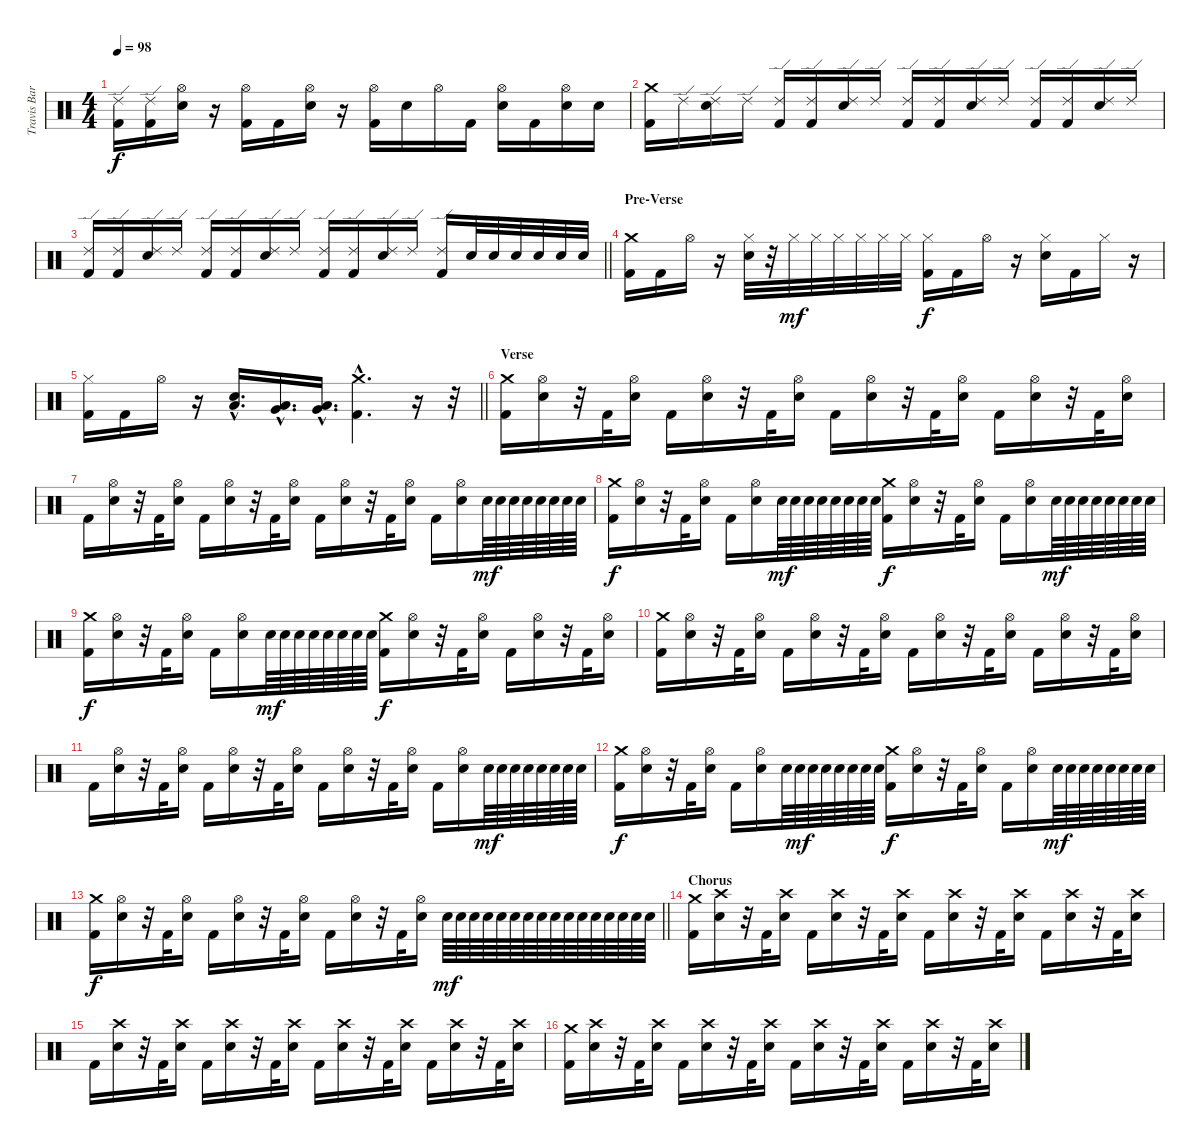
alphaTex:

\track ("Travis Barker" "Travis Bar") {instrument percussion}
\staff {score}
\articulation defaults
\ts (4 4)
\tempo 98
\clef neutral
\ks c
("Ride (edge) 2" "Kick (hit) 2").16{dy f} ("Ride (edge) 2" "Kick (hit) 2").16 ("Hi-Hat (open)" "Electric Snare (hit)").16 r.16 ("Hi-Hat (open)" "Kick (hit) 2").16 "Kick (hit) 2".16 ("Hi-Hat (open)" "Electric Snare (hit)").16 r.16 ("Hi-Hat (open)" "Kick (hit) 2").16 "Electric Snare (hit)".16 "Hi-Hat (open)".16 "Kick (hit) 2".16 ("Hi-Hat (open)" "Electric Snare (hit)").16 "Kick (hit) 2".16 ("Hi-Hat (open)" "Electric Snare (hit)").16 "Electric Snare (hit)".16 |
("Crash medium (hit)" "Kick (hit) 2").16 "Ride (edge) 2".16 ("Ride (edge) 2" "Electric Snare (hit)").16 "Ride (edge) 2".16 ("Ride (edge) 2" "Kick (hit) 2").16 ("Ride (edge) 2" "Kick (hit) 2").16 ("Ride (edge) 2" "Electric Snare (hit)").16 "Ride (edge) 2".16 ("Ride (edge) 2" "Kick (hit) 2").16 ("Ride (edge) 2" "Kick (hit) 2").16 ("Ride (edge) 2" "Electric Snare (hit)").16 "Ride (edge) 2".16 ("Ride (edge) 2" "Kick (hit) 2").16 ("Ride (edge) 2" "Kick (hit) 2").16 ("Ride (edge) 2" "Electric Snare (hit)").16 "Ride (edge) 2".16 |
\barLineRight lightlight
("Ride (edge) 2" "Kick (hit) 2").16 ("Ride (edge) 2" "Kick (hit) 2").16 ("Ride (edge) 2" "Electric Snare (hit)").16 "Ride (edge) 2".16 ("Ride (edge) 2" "Kick (hit) 2").16 ("Ride (edge) 2" "Kick (hit) 2").16 ("Ride (edge) 2" "Electric Snare (hit)").16 "Ride (edge) 2".16 ("Ride (edge) 2" "Kick (hit) 2").16 ("Ride (edge) 2" "Kick (hit) 2").16 ("Ride (edge) 2" "Electric Snare (hit)").16 "Ride (edge) 2".16 ("Ride (edge) 2" "Kick (hit) 2").16 "Electric Snare (hit)".32 "Electric Snare (hit)".32 "Electric Snare (hit)".32 "Electric Snare (hit)".32 "Electric Snare (hit)".32 "Electric Snare (hit)".32 |
\section ("" "Pre-Verse")
("Crash medium (hit)" "Kick (hit) 2").16 "Kick (hit) 2".16 "Hi-Hat (open)".16 r.16 ("Hi-Hat (closed)" "Electric Snare (hit)").32 r.32 "Hi-Hat (closed)".32{dy mf} "Hi-Hat (closed)".32 "Hi-Hat (closed)".32 "Hi-Hat (closed)".32 "Hi-Hat (closed)".32 "Hi-Hat (closed)".32 ("Hi-Hat (closed)" "Kick (hit) 2").16{dy f} "Kick (hit) 2".16 "Hi-Hat (open)".16 r.16 ("Hi-Hat (closed)" "Electric Snare (hit)").16 "Kick (hit) 2".16 "Hi-Hat (closed)".16 r.16 |
\barLineRight lightlight
("Hi-Hat (closed)" "Kick (hit) 2").16 "Kick (hit) 2".16 "Hi-Hat (open)".16 r.16 ("Electric Snare (hit)"{hac} "Low Tom (hit)"{hac}).16{d} ("Low Tom (hit)"{hac} "Very Low Tom (hit)"{hac}).16{d} ("Very Low Tom (hit)"{hac} "Low Floor Tom (hit)"{hac}).16{d} ("Crash medium (hit)"{hac} "Kick (hit) 2"{hac}).4{d} r.16 r.32 |
\section ("" "Verse")
("Crash medium (hit)" "Kick (hit) 2").16 ("Hi-Hat (open)" "Electric Snare (hit)").16 r.32 "Kick (hit) 2".32 ("Hi-Hat (open)" "Electric Snare (hit)").16 "Kick (hit) 2".16 ("Hi-Hat (open)" "Electric Snare (hit)").16 r.32 "Kick (hit) 2".32 ("Hi-Hat (open)" "Electric Snare (hit)").16 "Kick (hit) 2".16 ("Hi-Hat (open)" "Electric Snare (hit)").16 r.32 "Kick (hit) 2".32 ("Hi-Hat (open)" "Electric Snare (hit)").16 "Kick (hit) 2".16 ("Hi-Hat (open)" "Electric Snare (hit)").16 r.32 "Kick (hit) 2".32 ("Hi-Hat (open)" "Electric Snare (hit)").16 |
"Kick (hit) 2".16 ("Hi-Hat (open)" "Electric Snare (hit)").16 r.32 "Kick (hit) 2".32 ("Hi-Hat (open)" "Electric Snare (hit)").16 "Kick (hit) 2".16 ("Hi-Hat (open)" "Electric Snare (hit)").16 r.32 "Kick (hit) 2".32 ("Hi-Hat (open)" "Electric Snare (hit)").16 "Kick (hit) 2".16 ("Hi-Hat (open)" "Electric Snare (hit)").16 r.32 "Kick (hit) 2".32 ("Hi-Hat (open)" "Electric Snare (hit)").16 "Kick (hit) 2".16 ("Hi-Hat (open)" "Electric Snare (hit)").16 "Electric Snare (hit)".64{dy mf} "Electric Snare (hit)".64 "Electric Snare (hit)".64 "Electric Snare (hit)".64 "Electric Snare (hit)".64 "Electric Snare (hit)".64 "Electric Snare (hit)".64 "Electric Snare (hit)".64 |
("Crash medium (hit)" "Kick (hit) 2").16{dy f} ("Hi-Hat (open)" "Electric Snare (hit)").16 r.32 "Kick (hit) 2".32 ("Hi-Hat (open)" "Electric Snare (hit)").16 "Kick (hit) 2".16 ("Hi-Hat (open)" "Electric Snare (hit)").16 "Electric Snare (hit)".64{dy mf} "Electric Snare (hit)".64 "Electric Snare (hit)".64 "Electric Snare (hit)".64 "Electric Snare (hit)".64 "Electric Snare (hit)".64 "Electric Snare (hit)".64 "Electric Snare (hit)".64 ("Crash medium (hit)" "Kick (hit) 2").16{dy f} ("Hi-Hat (open)" "Electric Snare (hit)").16 r.32 "Kick (hit) 2".32 ("Hi-Hat (open)" "Electric Snare (hit)").16 "Kick (hit) 2".16 ("Hi-Hat (open)" "Electric Snare (hit)").16 "Electric Snare (hit)".64{dy mf} "Electric Snare (hit)".64 "Electric Snare (hit)".64 "Electric Snare (hit)".64 "Electric Snare (hit)".64 "Electric Snare (hit)".64 "Electric Snare (hit)".64 "Electric Snare (hit)".64 |
("Crash medium (hit)" "Kick (hit) 2").16{dy f} ("Hi-Hat (open)" "Electric Snare (hit)").16 r.32 "Kick (hit) 2".32 ("Hi-Hat (open)" "Electric Snare (hit)").16 "Kick (hit) 2".16 ("Hi-Hat (open)" "Electric Snare (hit)").16 "Electric Snare (hit)".64{dy mf} "Electric Snare (hit)".64 "Electric Snare (hit)".64 "Electric Snare (hit)".64 "Electric Snare (hit)".64 "Electric Snare (hit)".64 "Electric Snare (hit)".64 "Electric Snare (hit)".64 ("Crash medium (hit)" "Kick (hit) 2").16{dy f} ("Hi-Hat (open)" "Electric Snare (hit)").16 r.32 "Kick (hit) 2".32 ("Hi-Hat (open)" "Electric Snare (hit)").16 "Kick (hit) 2".16 ("Hi-Hat (open)" "Electric Snare (hit)").16 r.32 "Kick (hit) 2".32 ("Hi-Hat (open)" "Electric Snare (hit)").16 |
("Crash medium (hit)" "Kick (hit) 2").16 ("Hi-Hat (open)" "Electric Snare (hit)").16 r.32 "Kick (hit) 2".32 ("Hi-Hat (open)" "Electric Snare (hit)").16 "Kick (hit) 2".16 ("Hi-Hat (open)" "Electric Snare (hit)").16 r.32 "Kick (hit) 2".32 ("Hi-Hat (open)" "Electric Snare (hit)").16 "Kick (hit) 2".16 ("Hi-Hat (open)" "Electric Snare (hit)").16 r.32 "Kick (hit) 2".32 ("Hi-Hat (open)" "Electric Snare (hit)").16 "Kick (hit) 2".16 ("Hi-Hat (open)" "Electric Snare (hit)").16 r.32 "Kick (hit) 2".32 ("Hi-Hat (open)" "Electric Snare (hit)").16 |
"Kick (hit) 2".16 ("Hi-Hat (open)" "Electric Snare (hit)").16 r.32 "Kick (hit) 2".32 ("Hi-Hat (open)" "Electric Snare (hit)").16 "Kick (hit) 2".16 ("Hi-Hat (open)" "Electric Snare (hit)").16 r.32 "Kick (hit) 2".32 ("Hi-Hat (open)" "Electric Snare (hit)").16 "Kick (hit) 2".16 ("Hi-Hat (open)" "Electric Snare (hit)").16 r.32 "Kick (hit) 2".32 ("Hi-Hat (open)" "Electric Snare (hit)").16 "Kick (hit) 2".16 ("Hi-Hat (open)" "Electric Snare (hit)").16 "Electric Snare (hit)".64{dy mf} "Electric Snare (hit)".64 "Electric Snare (hit)".64 "Electric Snare (hit)".64 "Electric Snare (hit)".64 "Electric Snare (hit)".64 "Electric Snare (hit)".64 "Electric Snare (hit)".64 |
("Crash medium (hit)" "Kick (hit) 2").16{dy f} ("Hi-Hat (open)" "Electric Snare (hit)").16 r.32 "Kick (hit) 2".32 ("Hi-Hat (open)" "Electric Snare (hit)").16 "Kick (hit) 2".16 ("Hi-Hat (open)" "Electric Snare (hit)").16 "Electric Snare (hit)".64 "Electric Snare (hit)".64{dy mf} "Electric Snare (hit)".64 "Electric Snare (hit)".64 "Electric Snare (hit)".64 "Electric Snare (hit)".64 "Electric Snare (hit)".64 "Electric Snare (hit)".64 ("Crash medium (hit)" "Kick (hit) 2").16{dy f} ("Hi-Hat (open)" "Electric Snare (hit)").16 r.32 "Kick (hit) 2".32 ("Hi-Hat (open)" "Electric Snare (hit)").16 "Kick (hit) 2".16 ("Hi-Hat (open)" "Electric Snare (hit)").16 "Electric Snare (hit)".64{dy mf} "Electric Snare (hit)".64 "Electric Snare (hit)".64 "Electric Snare (hit)".64 "Electric Snare (hit)".64 "Electric Snare (hit)".64 "Electric Snare (hit)".64 "Electric Snare (hit)".64 |
\barLineRight lightlight
("Crash medium (hit)" "Kick (hit) 2").16{dy f} ("Hi-Hat (open)" "Electric Snare (hit)").16 r.32 "Kick (hit) 2".32 ("Hi-Hat (open)" "Electric Snare (hit)").16 "Kick (hit) 2".16 ("Hi-Hat (open)" "Electric Snare (hit)").16 r.32 "Kick (hit) 2".32 ("Hi-Hat (open)" "Electric Snare (hit)").16 "Kick (hit) 2".16 ("Hi-Hat (open)" "Electric Snare (hit)").16 r.32 "Kick (hit) 2".32 ("Hi-Hat (open)" "Electric Snare (hit)").16 "Electric Snare (hit)".64{dy mf} "Electric Snare (hit)".64 "Electric Snare (hit)".64 "Electric Snare (hit)".64 "Electric Snare (hit)".64 "Electric Snare (hit)".64 "Electric Snare (hit)".64 "Electric Snare (hit)".64 "Electric Snare (hit)".64 "Electric Snare (hit)".64 "Electric Snare (hit)".64 "Electric Snare (hit)".64 "Electric Snare (hit)".64 "Electric Snare (hit)".64 "Electric Snare (hit)".64 "Electric Snare (hit)".64 |
\section ("" "Chorus")
("Crash medium (hit)" "Kick (hit) 2").16 ("Crash high (hit)" "Electric Snare (hit)").16 r.32 "Kick (hit) 2".32 ("Crash high (hit)" "Electric Snare (hit)").16 "Kick (hit) 2".16 ("Crash high (hit)" "Electric Snare (hit)").16 r.32 "Kick (hit) 2".32 ("Crash high (hit)" "Electric Snare (hit)").16 "Kick (hit) 2".16 ("Crash high (hit)" "Electric Snare (hit)").16 r.32 "Kick (hit) 2".32 ("Crash high (hit)" "Electric Snare (hit)").16 "Kick (hit) 2".16 ("Crash high (hit)" "Electric Snare (hit)").16 r.32 "Kick (hit) 2".32 ("Crash high (hit)" "Electric Snare (hit)").16 |
"Kick (hit) 2".16 ("Crash high (hit)" "Electric Snare (hit)").16 r.32 "Kick (hit) 2".32 ("Crash high (hit)" "Electric Snare (hit)").16 "Kick (hit) 2".16 ("Crash high (hit)" "Electric Snare (hit)").16 r.32 "Kick (hit) 2".32 ("Crash high (hit)" "Electric Snare (hit)").16 "Kick (hit) 2".16 ("Crash high (hit)" "Electric Snare (hit)").16 r.32 "Kick (hit) 2".32 ("Crash high (hit)" "Electric Snare (hit)").16 "Kick (hit) 2".16 ("Crash high (hit)" "Electric Snare (hit)").16 r.32 "Kick (hit) 2".32 ("Crash high (hit)" "Electric Snare (hit)").16 |
("Crash medium (hit)" "Kick (hit) 2").16 ("Crash high (hit)" "Electric Snare (hit)").16 r.32 "Kick (hit) 2".32 ("Crash high (hit)" "Electric Snare (hit)").16 "Kick (hit) 2".16 ("Crash high (hit)" "Electric Snare (hit)").16 r.32 "Kick (hit) 2".32 ("Crash high (hit)" "Electric Snare (hit)").16 "Kick (hit) 2".16 ("Crash high (hit)" "Electric Snare (hit)").16 r.32 "Kick (hit) 2".32 ("Crash high (hit)" "Electric Snare (hit)").16 "Kick (hit) 2".16 ("Crash high (hit)" "Electric Snare (hit)").16 r.32 "Kick (hit) 2".32 ("Crash high (hit)" "Electric Snare (hit)").16
